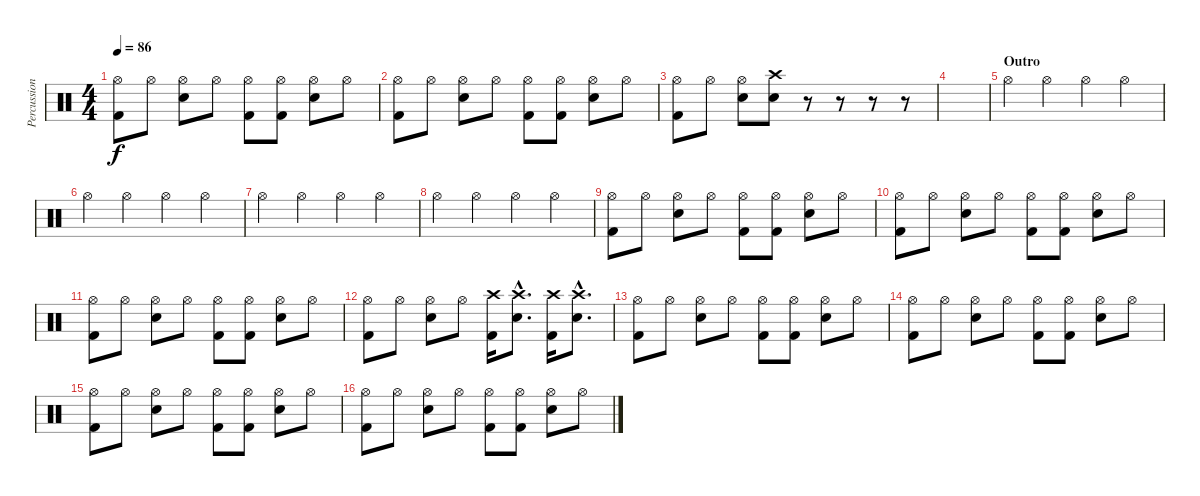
\track ("Percussion" "Percussion") {instrument percussion}
\staff {score}
\articulation defaults
\ts (4 4)
\tempo 86
\clef neutral
\ks c
("Hi-Hat (open)" "Kick (hit) 2").8{dy f} "Hi-Hat (open)".8 ("Hi-Hat (open)" "Snare (hit) 2").8 "Hi-Hat (open)".8 ("Hi-Hat (open)" "Kick (hit) 2").8 ("Hi-Hat (open)" "Kick (hit) 2").8 ("Hi-Hat (open)" "Snare (hit) 2").8 "Hi-Hat (open)".8 |
("Hi-Hat (open)" "Kick (hit) 2").8 "Hi-Hat (open)".8 ("Hi-Hat (open)" "Snare (hit) 2").8 "Hi-Hat (open)".8 ("Hi-Hat (open)" "Kick (hit) 2").8 ("Hi-Hat (open)" "Kick (hit) 2").8 ("Hi-Hat (open)" "Snare (hit) 2").8 "Hi-Hat (open)".8 |
("Hi-Hat (open)" "Kick (hit) 2").8 "Hi-Hat (open)".8 ("Hi-Hat (open)" "Snare (hit) 2").8 ("Crash high (hit)" "Snare (hit) 2").8 r.8 r.8 r.8 r.8 |
|
\section ("" "Outro")
"Hi-Hat (open)".4 "Hi-Hat (open)".4 "Hi-Hat (open)".4 "Hi-Hat (open)".4 |
"Hi-Hat (open)".4 "Hi-Hat (open)".4 "Hi-Hat (open)".4 "Hi-Hat (open)".4 |
"Hi-Hat (open)".4 "Hi-Hat (open)".4 "Hi-Hat (open)".4 "Hi-Hat (open)".4 |
"Hi-Hat (open)".4 "Hi-Hat (open)".4 "Hi-Hat (open)".4 "Hi-Hat (open)".4 |
("Hi-Hat (open)" "Kick (hit) 2").8 "Hi-Hat (open)".8 ("Hi-Hat (open)" "Snare (hit) 2").8 "Hi-Hat (open)".8 ("Hi-Hat (open)" "Kick (hit) 2").8 ("Hi-Hat (open)" "Kick (hit) 2").8 ("Hi-Hat (open)" "Snare (hit) 2").8 "Hi-Hat (open)".8 |
("Hi-Hat (open)" "Kick (hit) 2").8 "Hi-Hat (open)".8 ("Hi-Hat (open)" "Snare (hit) 2").8 "Hi-Hat (open)".8 ("Hi-Hat (open)" "Kick (hit) 2").8 ("Hi-Hat (open)" "Kick (hit) 2").8 ("Hi-Hat (open)" "Snare (hit) 2").8 "Hi-Hat (open)".8 |
("Hi-Hat (open)" "Kick (hit) 2").8 "Hi-Hat (open)".8 ("Hi-Hat (open)" "Snare (hit) 2").8 "Hi-Hat (open)".8 ("Hi-Hat (open)" "Kick (hit) 2").8 ("Hi-Hat (open)" "Kick (hit) 2").8 ("Hi-Hat (open)" "Snare (hit) 2").8 "Hi-Hat (open)".8 |
("Hi-Hat (open)" "Kick (hit) 2").8 "Hi-Hat (open)".8 ("Hi-Hat (open)" "Snare (hit) 2").8 "Hi-Hat (open)".8 ("Crash high (hit)" "Kick (hit) 2").16 ("Crash high (hit)"{hac} "Snare (hit) 2"{hac}).8{d} ("Crash high (hit)" "Kick (hit) 2").16 ("Crash high (hit)"{hac} "Snare (hit) 2"{hac}).8{d} |
("Hi-Hat (open)" "Kick (hit) 2").8 "Hi-Hat (open)".8 ("Hi-Hat (open)" "Snare (hit) 2").8 "Hi-Hat (open)".8 ("Hi-Hat (open)" "Kick (hit) 2").8 ("Hi-Hat (open)" "Kick (hit) 2").8 ("Hi-Hat (open)" "Snare (hit) 2").8 "Hi-Hat (open)".8 |
("Hi-Hat (open)" "Kick (hit) 2").8 "Hi-Hat (open)".8 ("Hi-Hat (open)" "Snare (hit) 2").8 "Hi-Hat (open)".8 ("Hi-Hat (open)" "Kick (hit) 2").8 ("Hi-Hat (open)" "Kick (hit) 2").8 ("Hi-Hat (open)" "Snare (hit) 2").8 "Hi-Hat (open)".8 |
("Hi-Hat (open)" "Kick (hit) 2").8 "Hi-Hat (open)".8 ("Hi-Hat (open)" "Snare (hit) 2").8 "Hi-Hat (open)".8 ("Hi-Hat (open)" "Kick (hit) 2").8 ("Hi-Hat (open)" "Kick (hit) 2").8 ("Hi-Hat (open)" "Snare (hit) 2").8 "Hi-Hat (open)".8 |
("Hi-Hat (open)" "Kick (hit) 2").8 "Hi-Hat (open)".8 ("Hi-Hat (open)" "Snare (hit) 2").8 "Hi-Hat (open)".8 ("Hi-Hat (open)" "Kick (hit) 2").8 ("Hi-Hat (open)" "Kick (hit) 2").8 ("Hi-Hat (open)" "Snare (hit) 2").8 "Hi-Hat (open)".8
